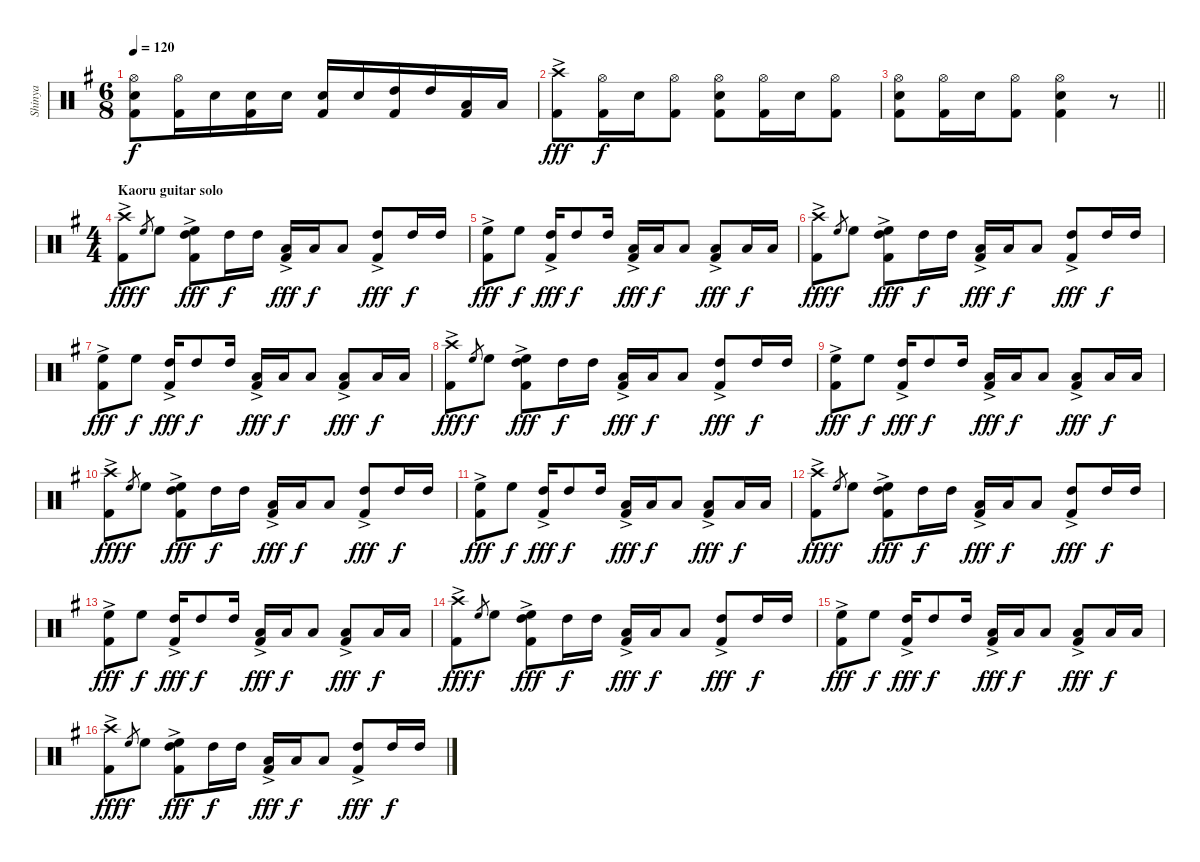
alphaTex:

\track ("Shinya" "Shinya") {instrument percussion}
\staff {score}
\articulation defaults
\ts (6 8)
\tempo 120
\clef neutral
\ks g
("Hi-Hat (open)" "Snare (hit) 2" "Kick (hit) 2").8{dy f} ("Hi-Hat (open)" "Kick (hit) 2").16 "Snare (hit) 2".16 ("Snare (hit) 2" "Kick (hit) 2").16 "Snare (hit) 2".16 ("Snare (hit) 2" "Kick (hit) 2").16 "Snare (hit) 2".16 ("High Tom (hit)" "Kick (hit) 2").16 "High Tom (hit)".16 ("Low Tom (hit)" "Kick (hit) 2").16 "Low Tom (hit)".16 |
("Crash high (hit)"{ac} "Kick (hit) 2").8{dy fff} ("Hi-Hat (open)" "Kick (hit) 2").16{dy f} "Snare (hit) 2".16 ("Hi-Hat (open)" "Kick (hit) 2").8 ("Hi-Hat (open)" "Snare (hit) 2" "Kick (hit) 2").8 ("Hi-Hat (open)" "Kick (hit) 2").16 "Snare (hit) 2".16 ("Hi-Hat (open)" "Kick (hit) 2").8 |
\barLineRight lightlight
("Hi-Hat (open)" "Snare (hit) 2" "Kick (hit) 2").8 ("Hi-Hat (open)" "Kick (hit) 2").16 "Snare (hit) 2".16 ("Hi-Hat (open)" "Kick (hit) 2").8 ("Hi-Hat (open)" "Snare (hit) 2" "Kick (hit) 2").4 r.8 |
\ts (4 4)
\section ("" "Kaoru guitar solo")
("Crash high (hit)"{ac} "Kick (hit) 2"{ac}).8{dy fff} "High Floor Tom (hit)".8{gr dy f} "High Floor Tom (hit)".8 ("High Floor Tom (hit)" "High Tom (hit)" "Kick (hit) 2"{ac}).8{dy fff} "High Tom (hit)".16{dy f} "High Tom (hit)".16 ("Low Tom (hit)" "Kick (hit) 2"{ac}).16{dy fff} "Low Tom (hit)".16{dy f} "Low Tom (hit)".8 ("High Tom (hit)" "Kick (hit) 2"{ac}).8{dy fff} "High Tom (hit)".16{dy f} "High Tom (hit)".16 |
("High Floor Tom (hit)" "Kick (hit) 2"{ac}).8{dy fff} "High Floor Tom (hit)".8{dy f} ("High Tom (hit)" "Kick (hit) 2"{ac}).16{dy fff} "High Tom (hit)".8{dy f} "High Tom (hit)".16 ("Low Tom (hit)" "Kick (hit) 2"{ac}).16{dy fff} "Low Tom (hit)".16{dy f} "Low Tom (hit)".8 ("Low Floor Tom (hit)" "Kick (hit) 2"{ac}).8{dy fff} "Low Floor Tom (hit)".16{dy f} "Low Floor Tom (hit)".16 |
("Crash high (hit)"{ac} "Kick (hit) 2"{ac}).8{dy fff} "High Floor Tom (hit)".8{gr dy f} "High Floor Tom (hit)".8 ("High Floor Tom (hit)" "High Tom (hit)" "Kick (hit) 2"{ac}).8{dy fff} "High Tom (hit)".16{dy f} "High Tom (hit)".16 ("Low Tom (hit)" "Kick (hit) 2"{ac}).16{dy fff} "Low Tom (hit)".16{dy f} "Low Tom (hit)".8 ("High Tom (hit)" "Kick (hit) 2"{ac}).8{dy fff} "High Tom (hit)".16{dy f} "High Tom (hit)".16 |
("High Floor Tom (hit)" "Kick (hit) 2"{ac}).8{dy fff} "High Floor Tom (hit)".8{dy f} ("High Tom (hit)" "Kick (hit) 2"{ac}).16{dy fff} "High Tom (hit)".8{dy f} "High Tom (hit)".16 ("Low Tom (hit)" "Kick (hit) 2"{ac}).16{dy fff} "Low Tom (hit)".16{dy f} "Low Tom (hit)".8 ("Low Floor Tom (hit)" "Kick (hit) 2"{ac}).8{dy fff} "Low Floor Tom (hit)".16{dy f} "Low Floor Tom (hit)".16 |
("Crash high (hit)"{ac} "Kick (hit) 2"{ac}).8{dy fff} "High Floor Tom (hit)".8{gr dy f} "High Floor Tom (hit)".8 ("High Floor Tom (hit)" "High Tom (hit)" "Kick (hit) 2"{ac}).8{dy fff} "High Tom (hit)".16{dy f} "High Tom (hit)".16 ("Low Tom (hit)" "Kick (hit) 2"{ac}).16{dy fff} "Low Tom (hit)".16{dy f} "Low Tom (hit)".8 ("High Tom (hit)" "Kick (hit) 2"{ac}).8{dy fff} "High Tom (hit)".16{dy f} "High Tom (hit)".16 |
("High Floor Tom (hit)" "Kick (hit) 2"{ac}).8{dy fff} "High Floor Tom (hit)".8{dy f} ("High Tom (hit)" "Kick (hit) 2"{ac}).16{dy fff} "High Tom (hit)".8{dy f} "High Tom (hit)".16 ("Low Tom (hit)" "Kick (hit) 2"{ac}).16{dy fff} "Low Tom (hit)".16{dy f} "Low Tom (hit)".8 ("Low Floor Tom (hit)" "Kick (hit) 2"{ac}).8{dy fff} "Low Floor Tom (hit)".16{dy f} "Low Floor Tom (hit)".16 |
("Crash high (hit)"{ac} "Kick (hit) 2"{ac}).8{dy fff} "High Floor Tom (hit)".8{gr dy f} "High Floor Tom (hit)".8 ("High Floor Tom (hit)" "High Tom (hit)" "Kick (hit) 2"{ac}).8{dy fff} "High Tom (hit)".16{dy f} "High Tom (hit)".16 ("Low Tom (hit)" "Kick (hit) 2"{ac}).16{dy fff} "Low Tom (hit)".16{dy f} "Low Tom (hit)".8 ("High Tom (hit)" "Kick (hit) 2"{ac}).8{dy fff} "High Tom (hit)".16{dy f} "High Tom (hit)".16 |
("High Floor Tom (hit)" "Kick (hit) 2"{ac}).8{dy fff} "High Floor Tom (hit)".8{dy f} ("High Tom (hit)" "Kick (hit) 2"{ac}).16{dy fff} "High Tom (hit)".8{dy f} "High Tom (hit)".16 ("Low Tom (hit)" "Kick (hit) 2"{ac}).16{dy fff} "Low Tom (hit)".16{dy f} "Low Tom (hit)".8 ("Low Floor Tom (hit)" "Kick (hit) 2"{ac}).8{dy fff} "Low Floor Tom (hit)".16{dy f} "Low Floor Tom (hit)".16 |
("Crash high (hit)"{ac} "Kick (hit) 2"{ac}).8{dy fff} "High Floor Tom (hit)".8{gr dy f} "High Floor Tom (hit)".8 ("High Floor Tom (hit)" "High Tom (hit)" "Kick (hit) 2"{ac}).8{dy fff} "High Tom (hit)".16{dy f} "High Tom (hit)".16 ("Low Tom (hit)" "Kick (hit) 2"{ac}).16{dy fff} "Low Tom (hit)".16{dy f} "Low Tom (hit)".8 ("High Tom (hit)" "Kick (hit) 2"{ac}).8{dy fff} "High Tom (hit)".16{dy f} "High Tom (hit)".16 |
("High Floor Tom (hit)" "Kick (hit) 2"{ac}).8{dy fff} "High Floor Tom (hit)".8{dy f} ("High Tom (hit)" "Kick (hit) 2"{ac}).16{dy fff} "High Tom (hit)".8{dy f} "High Tom (hit)".16 ("Low Tom (hit)" "Kick (hit) 2"{ac}).16{dy fff} "Low Tom (hit)".16{dy f} "Low Tom (hit)".8 ("Low Floor Tom (hit)" "Kick (hit) 2"{ac}).8{dy fff} "Low Floor Tom (hit)".16{dy f} "Low Floor Tom (hit)".16 |
("Crash high (hit)"{ac} "Kick (hit) 2"{ac}).8{dy fff} "High Floor Tom (hit)".8{gr dy f} "High Floor Tom (hit)".8 ("High Floor Tom (hit)" "High Tom (hit)" "Kick (hit) 2"{ac}).8{dy fff} "High Tom (hit)".16{dy f} "High Tom (hit)".16 ("Low Tom (hit)" "Kick (hit) 2"{ac}).16{dy fff} "Low Tom (hit)".16{dy f} "Low Tom (hit)".8 ("High Tom (hit)" "Kick (hit) 2"{ac}).8{dy fff} "High Tom (hit)".16{dy f} "High Tom (hit)".16 |
("High Floor Tom (hit)" "Kick (hit) 2"{ac}).8{dy fff} "High Floor Tom (hit)".8{dy f} ("High Tom (hit)" "Kick (hit) 2"{ac}).16{dy fff} "High Tom (hit)".8{dy f} "High Tom (hit)".16 ("Low Tom (hit)" "Kick (hit) 2"{ac}).16{dy fff} "Low Tom (hit)".16{dy f} "Low Tom (hit)".8 ("Low Floor Tom (hit)" "Kick (hit) 2"{ac}).8{dy fff} "Low Floor Tom (hit)".16{dy f} "Low Floor Tom (hit)".16 |
("Crash high (hit)"{ac} "Kick (hit) 2"{ac}).8{dy fff} "High Floor Tom (hit)".8{gr dy f} "High Floor Tom (hit)".8 ("High Floor Tom (hit)" "High Tom (hit)" "Kick (hit) 2"{ac}).8{dy fff} "High Tom (hit)".16{dy f} "High Tom (hit)".16 ("Low Tom (hit)" "Kick (hit) 2"{ac}).16{dy fff} "Low Tom (hit)".16{dy f} "Low Tom (hit)".8 ("High Tom (hit)" "Kick (hit) 2"{ac}).8{dy fff} "High Tom (hit)".16{dy f} "High Tom (hit)".16
